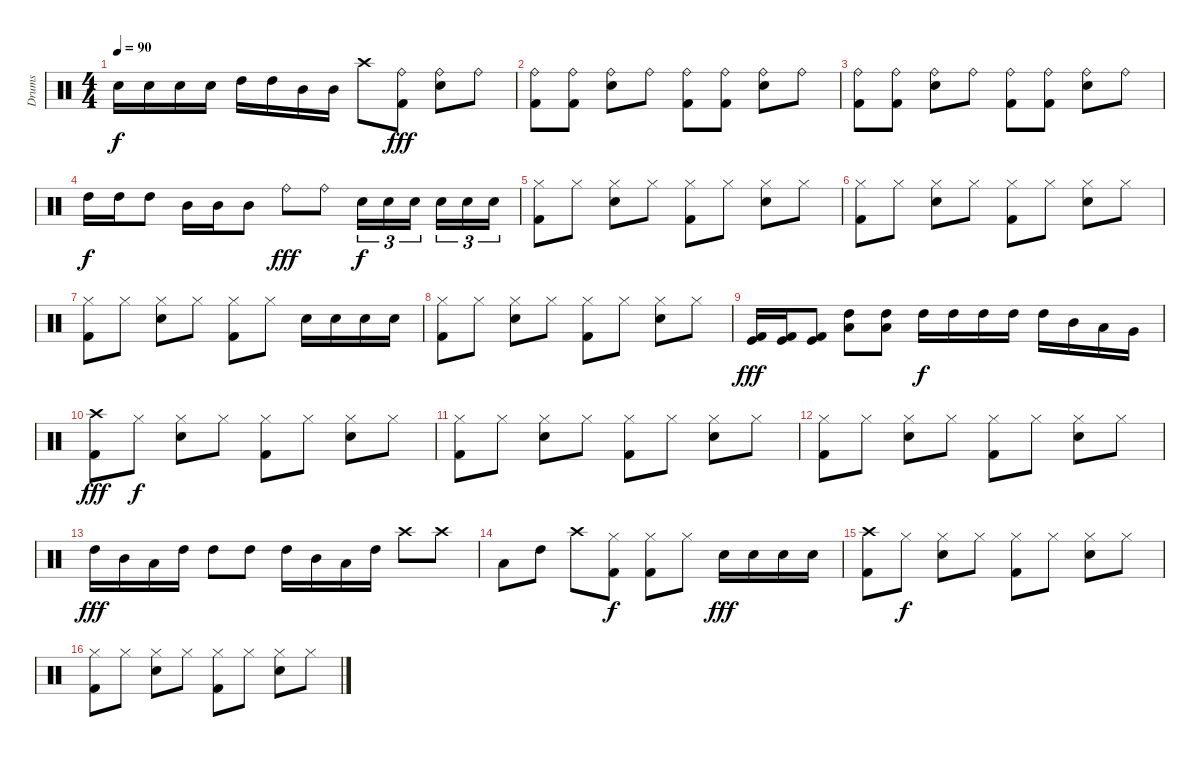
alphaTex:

\track ("Drums" "Drums") {instrument percussion}
\staff {score}
\articulation defaults
\ts (4 4)
\tempo 90
\clef neutral
\ks c "Electric Snare (hit)".16{dy f} "Electric Snare (hit)".16 "Electric Snare (hit)".16 "Electric Snare (hit)".16 "High Tom (hit)".16 "High Tom (hit)".16 "Mid Tom (hit)".16 "Mid Tom (hit)".16 "Crash high (hit)".8
("Ride (bell)" "Kick (hit) 2").8{dy fff} ("Ride (bell)" "Electric Snare (hit)").8 "Ride (bell)".8 |
("Ride (bell)" "Kick (hit) 2").8 ("Ride (bell)" "Kick (hit) 2").8 ("Ride (bell)" "Electric Snare (hit)").8 "Ride (bell)".8 ("Ride (bell)" "Kick (hit) 2").8 ("Ride (bell)" "Kick (hit) 2").8 ("Ride (bell)" "Electric Snare (hit)").8 "Ride (bell)".8 |
("Ride (bell)" "Kick (hit) 2").8 ("Ride (bell)" "Kick (hit) 2").8 ("Ride (bell)" "Electric Snare (hit)").8 "Ride (bell)".8 ("Ride (bell)" "Kick (hit) 2").8 ("Ride (bell)" "Kick (hit) 2").8 ("Ride (bell)" "Electric Snare (hit)").8 "Ride (bell)".8 |
"High Tom (hit)".16{dy f} "High Tom (hit)".16 "High Tom (hit)".8 "Mid Tom (hit)".16 "Mid Tom (hit)".16 "Mid Tom (hit)".8 "Ride (bell)".8{dy fff} "Ride (bell)".8 "Electric Snare (hit)".16{tu (3 2) dy f} "Electric Snare (hit)".16{tu (3 2)} "Electric Snare (hit)".16{tu (3 2)} "Electric Snare (hit)".16{tu (3 2)} "Electric Snare (hit)".16{tu (3 2)} "Electric Snare (hit)".16{tu (3 2)} |
("Hi-Hat (closed)" "Kick (hit) 2").8 "Hi-Hat (closed)".8 ("Hi-Hat (closed)" "Electric Snare (hit)").8 "Hi-Hat (closed)".8 ("Hi-Hat (closed)" "Kick (hit) 2").8 "Hi-Hat (closed)".8 ("Hi-Hat (closed)" "Electric Snare (hit)").8 "Hi-Hat (closed)".8 |
("Hi-Hat (closed)" "Kick (hit) 2").8 "Hi-Hat (closed)".8 ("Hi-Hat (closed)" "Electric Snare (hit)").8 "Hi-Hat (closed)".8 ("Hi-Hat (closed)" "Kick (hit) 2").8 "Hi-Hat (closed)".8 ("Hi-Hat (closed)" "Electric Snare (hit)").8 "Hi-Hat (closed)".8 |
("Hi-Hat (closed)" "Kick (hit) 2").8 "Hi-Hat (closed)".8 ("Hi-Hat (closed)" "Electric Snare (hit)").8 "Hi-Hat (closed)".8 ("Hi-Hat (closed)" "Kick (hit) 2").8 "Hi-Hat (closed)".8 "Electric Snare (hit)".16 "Electric Snare (hit)".16 "Electric Snare (hit)".16 "Electric Snare (hit)".16 |
("Hi-Hat (closed)" "Kick (hit) 2").8 "Hi-Hat (closed)".8 ("Hi-Hat (closed)" "Electric Snare (hit)").8 "Hi-Hat (closed)".8 ("Hi-Hat (closed)" "Kick (hit) 2").8 "Hi-Hat (closed)".8 ("Hi-Hat (closed)" "Electric Snare (hit)").8 "Hi-Hat (closed)".8 |
("Kick (hit)" "Kick (hit) 2").16{dy fff} ("Kick (hit)" "Kick (hit) 2").16 ("Kick (hit)" "Kick (hit) 2").8 ("High Tom (hit)" "Low Tom (hit)").8 ("High Tom (hit)" "Low Tom (hit)").8 "High Tom (hit)".16{dy f} "High Tom (hit)".16 "High Tom (hit)".16 "High Tom (hit)".16 "High Tom (hit)".16 "Mid Tom (hit)".16 "Low Tom (hit)".16 "Very Low Tom (hit)".16 |
("Crash high (hit)" "Kick (hit) 2").8{dy fff} "Hi-Hat (closed)".8{dy f} ("Hi-Hat (closed)" "Electric Snare (hit)").8 "Hi-Hat (closed)".8 ("Hi-Hat (closed)" "Kick (hit) 2").8 "Hi-Hat (closed)".8 ("Hi-Hat (closed)" "Electric Snare (hit)").8 "Hi-Hat (closed)".8 |
("Hi-Hat (closed)" "Kick (hit) 2").8 "Hi-Hat (closed)".8 ("Hi-Hat (closed)" "Electric Snare (hit)").8 "Hi-Hat (closed)".8 ("Hi-Hat (closed)" "Kick (hit) 2").8 "Hi-Hat (closed)".8 ("Hi-Hat (closed)" "Electric Snare (hit)").8 "Hi-Hat (closed)".8 |
("Hi-Hat (closed)" "Kick (hit) 2").8 "Hi-Hat (closed)".8 ("Hi-Hat (closed)" "Electric Snare (hit)").8 "Hi-Hat (closed)".8 ("Hi-Hat (closed)" "Kick (hit) 2").8 "Hi-Hat (closed)".8 ("Hi-Hat (closed)" "Electric Snare (hit)").8 "Hi-Hat (closed)".8 |
"High Tom (hit)".16{dy fff} "Mid Tom (hit)".16 "Low Tom (hit)".16 "High Tom (hit)".16 "High Tom (hit)".8 "High Tom (hit)".8 "High Tom (hit)".16 "Mid Tom (hit)".16 "Low Tom (hit)".16 "High Tom (hit)".16 "Crash high (hit)".8 "Crash high (hit)".8 |
"Low Tom (hit)".8 "High Tom (hit)".8 "Crash high (hit)".8 ("Hi-Hat (closed)" "Kick (hit) 2").8{dy f} ("Hi-Hat (closed)" "Kick (hit) 2").8 "Hi-Hat (closed)".8 "Electric Snare (hit)".16{dy fff} "Electric Snare (hit)".16 "Electric Snare (hit)".16 "Electric Snare (hit)".16 |
("Crash high (hit)" "Kick (hit) 2").8 "Hi-Hat (closed)".8{dy f} ("Hi-Hat (closed)" "Electric Snare (hit)").8 "Hi-Hat (closed)".8 ("Hi-Hat (closed)" "Kick (hit) 2").8 "Hi-Hat (closed)".8 ("Hi-Hat (closed)" "Electric Snare (hit)").8 "Hi-Hat (closed)".8 |
("Hi-Hat (closed)" "Kick (hit) 2").8 "Hi-Hat (closed)".8 ("Hi-Hat (closed)" "Electric Snare (hit)").8 "Hi-Hat (closed)".8 ("Hi-Hat (closed)" "Kick (hit) 2").8 "Hi-Hat (closed)".8 ("Hi-Hat (closed)" "Electric Snare (hit)").8 "Hi-Hat (closed)".8
